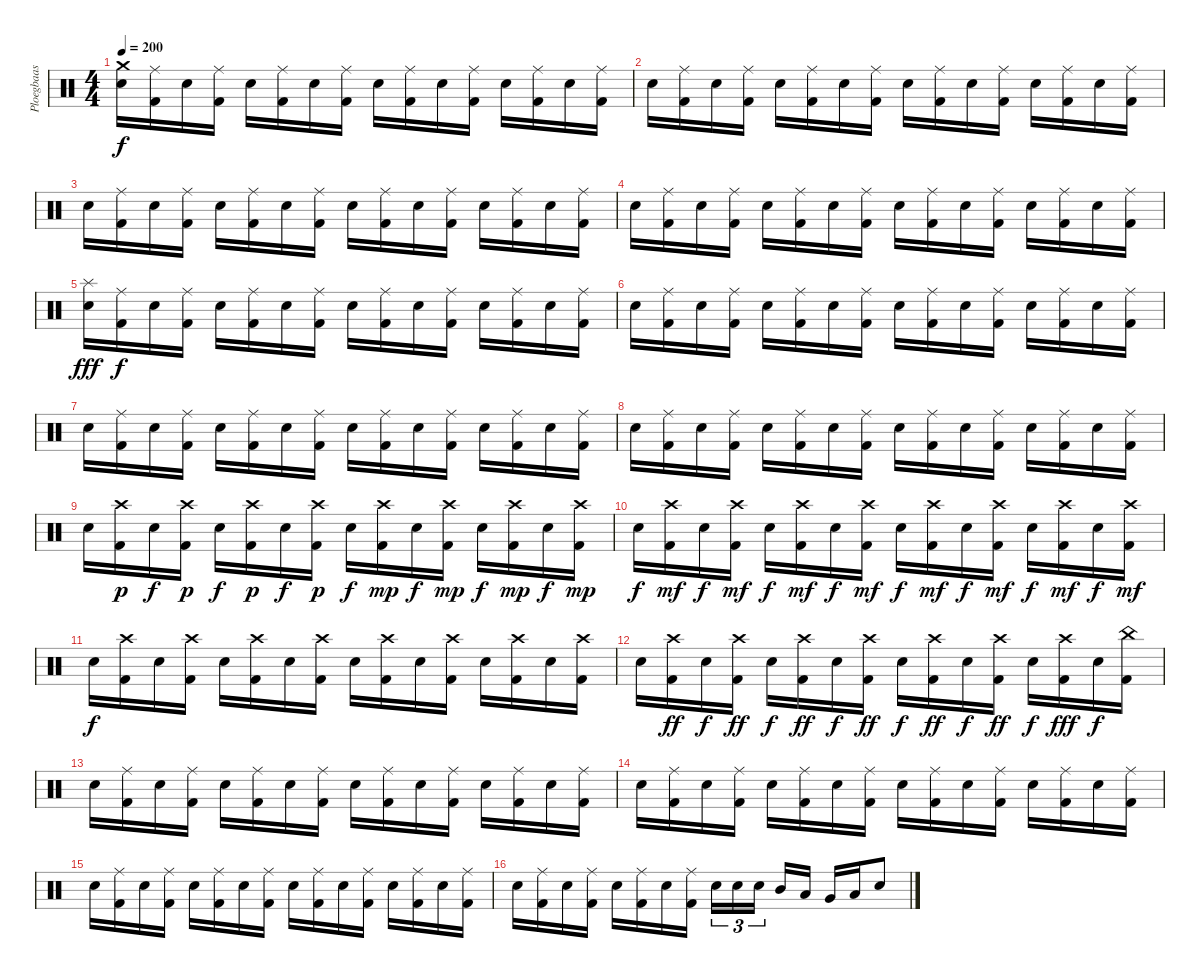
\track ("Ploegbaas" "Ploegbaas") {instrument percussion}
\staff {score}
\articulation defaults
\ts (4 4)
\tempo 200
\clef neutral
\ks c
("Crash medium (hit)" "Electric Snare (hit)").16{dy f} ("Ride (middle)" "Kick (hit) 2").16 "Electric Snare (hit)".16 ("Ride (middle)" "Kick (hit) 2").16 "Electric Snare (hit)".16 ("Ride (middle)" "Kick (hit) 2").16 "Electric Snare (hit)".16 ("Ride (middle)" "Kick (hit) 2").16 "Electric Snare (hit)".16 ("Ride (middle)" "Kick (hit) 2").16 "Electric Snare (hit)".16 ("Ride (middle)" "Kick (hit) 2").16 "Electric Snare (hit)".16 ("Ride (middle)" "Kick (hit) 2").16 "Electric Snare (hit)".16 ("Ride (middle)" "Kick (hit) 2").16 |
"Electric Snare (hit)".16 ("Ride (middle)" "Kick (hit) 2").16 "Electric Snare (hit)".16 ("Ride (middle)" "Kick (hit) 2").16 "Electric Snare (hit)".16 ("Ride (middle)" "Kick (hit) 2").16 "Electric Snare (hit)".16 ("Ride (middle)" "Kick (hit) 2").16 "Electric Snare (hit)".16 ("Ride (middle)" "Kick (hit) 2").16 "Electric Snare (hit)".16 ("Ride (middle)" "Kick (hit) 2").16 "Electric Snare (hit)".16 ("Ride (middle)" "Kick (hit) 2").16 "Electric Snare (hit)".16 ("Ride (middle)" "Kick (hit) 2").16 |
"Electric Snare (hit)".16 ("Ride (middle)" "Kick (hit) 2").16 "Electric Snare (hit)".16 ("Ride (middle)" "Kick (hit) 2").16 "Electric Snare (hit)".16 ("Ride (middle)" "Kick (hit) 2").16 "Electric Snare (hit)".16 ("Ride (middle)" "Kick (hit) 2").16 "Electric Snare (hit)".16 ("Ride (middle)" "Kick (hit) 2").16 "Electric Snare (hit)".16 ("Ride (middle)" "Kick (hit) 2").16 "Electric Snare (hit)".16 ("Ride (middle)" "Kick (hit) 2").16 "Electric Snare (hit)".16 ("Ride (middle)" "Kick (hit) 2").16 |
"Electric Snare (hit)".16 ("Ride (middle)" "Kick (hit) 2").16 "Electric Snare (hit)".16 ("Ride (middle)" "Kick (hit) 2").16 "Electric Snare (hit)".16 ("Ride (middle)" "Kick (hit) 2").16 "Electric Snare (hit)".16 ("Ride (middle)" "Kick (hit) 2").16 "Electric Snare (hit)".16 ("Ride (middle)" "Kick (hit) 2").16 "Electric Snare (hit)".16 ("Ride (middle)" "Kick (hit) 2").16 "Electric Snare (hit)".16 ("Ride (middle)" "Kick (hit) 2").16 "Electric Snare (hit)".16 ("Ride (middle)" "Kick (hit) 2").16 |
("Splash (hit)" "Electric Snare (hit)").16{dy fff} ("Ride (middle)" "Kick (hit) 2").16{dy f} "Electric Snare (hit)".16 ("Ride (middle)" "Kick (hit) 2").16 "Electric Snare (hit)".16 ("Ride (middle)" "Kick (hit) 2").16 "Electric Snare (hit)".16 ("Ride (middle)" "Kick (hit) 2").16 "Electric Snare (hit)".16 ("Ride (middle)" "Kick (hit) 2").16 "Electric Snare (hit)".16 ("Ride (middle)" "Kick (hit) 2").16 "Electric Snare (hit)".16 ("Ride (middle)" "Kick (hit) 2").16 "Electric Snare (hit)".16 ("Ride (middle)" "Kick (hit) 2").16 |
"Electric Snare (hit)".16 ("Ride (middle)" "Kick (hit) 2").16 "Electric Snare (hit)".16 ("Ride (middle)" "Kick (hit) 2").16 "Electric Snare (hit)".16 ("Ride (middle)" "Kick (hit) 2").16 "Electric Snare (hit)".16 ("Ride (middle)" "Kick (hit) 2").16 "Electric Snare (hit)".16 ("Ride (middle)" "Kick (hit) 2").16 "Electric Snare (hit)".16 ("Ride (middle)" "Kick (hit) 2").16 "Electric Snare (hit)".16 ("Ride (middle)" "Kick (hit) 2").16 "Electric Snare (hit)".16 ("Ride (middle)" "Kick (hit) 2").16 |
"Electric Snare (hit)".16 ("Ride (middle)" "Kick (hit) 2").16 "Electric Snare (hit)".16 ("Ride (middle)" "Kick (hit) 2").16 "Electric Snare (hit)".16 ("Ride (middle)" "Kick (hit) 2").16 "Electric Snare (hit)".16 ("Ride (middle)" "Kick (hit) 2").16 "Electric Snare (hit)".16 ("Ride (middle)" "Kick (hit) 2").16 "Electric Snare (hit)".16 ("Ride (middle)" "Kick (hit) 2").16 "Electric Snare (hit)".16 ("Ride (middle)" "Kick (hit) 2").16 "Electric Snare (hit)".16 ("Ride (middle)" "Kick (hit) 2").16 |
"Electric Snare (hit)".16 ("Ride (middle)" "Kick (hit) 2").16 "Electric Snare (hit)".16 ("Ride (middle)" "Kick (hit) 2").16 "Electric Snare (hit)".16 ("Ride (middle)" "Kick (hit) 2").16 "Electric Snare (hit)".16 ("Ride (middle)" "Kick (hit) 2").16 "Electric Snare (hit)".16 ("Ride (middle)" "Kick (hit) 2").16 "Electric Snare (hit)".16 ("Ride (middle)" "Kick (hit) 2").16 "Electric Snare (hit)".16 ("Ride (middle)" "Kick (hit) 2").16 "Electric Snare (hit)".16 ("Ride (middle)" "Kick (hit) 2").16 |
"Electric Snare (hit)".16 ("Crash high (hit)" "Kick (hit) 2").16{dy p} "Electric Snare (hit)".16{dy f} ("Crash high (hit)" "Kick (hit) 2").16{dy p} "Electric Snare (hit)".16{dy f} ("Crash high (hit)" "Kick (hit) 2").16{dy p} "Electric Snare (hit)".16{dy f} ("Crash high (hit)" "Kick (hit) 2").16{dy p} "Electric Snare (hit)".16{dy f} ("Crash high (hit)" "Kick (hit) 2").16{dy mp} "Electric Snare (hit)".16{dy f} ("Crash high (hit)" "Kick (hit) 2").16{dy mp} "Electric Snare (hit)".16{dy f} ("Crash high (hit)" "Kick (hit) 2").16{dy mp} "Electric Snare (hit)".16{dy f} ("Crash high (hit)" "Kick (hit) 2").16{dy mp} |
"Electric Snare (hit)".16{dy f} ("Crash high (hit)" "Kick (hit) 2").16{dy mf} "Electric Snare (hit)".16{dy f} ("Crash high (hit)" "Kick (hit) 2").16{dy mf} "Electric Snare (hit)".16{dy f} ("Crash high (hit)" "Kick (hit) 2").16{dy mf} "Electric Snare (hit)".16{dy f} ("Crash high (hit)" "Kick (hit) 2").16{dy mf} "Electric Snare (hit)".16{dy f} ("Crash high (hit)" "Kick (hit) 2").16{dy mf} "Electric Snare (hit)".16{dy f} ("Crash high (hit)" "Kick (hit) 2").16{dy mf} "Electric Snare (hit)".16{dy f} ("Crash high (hit)" "Kick (hit) 2").16{dy mf} "Electric Snare (hit)".16{dy f} ("Crash high (hit)" "Kick (hit) 2").16{dy mf} |
"Electric Snare (hit)".16{dy f} ("Crash high (hit)" "Kick (hit) 2").16 "Electric Snare (hit)".16 ("Crash high (hit)" "Kick (hit) 2").16 "Electric Snare (hit)".16 ("Crash high (hit)" "Kick (hit) 2").16 "Electric Snare (hit)".16 ("Crash high (hit)" "Kick (hit) 2").16 "Electric Snare (hit)".16 ("Crash high (hit)" "Kick (hit) 2").16 "Electric Snare (hit)".16 ("Crash high (hit)" "Kick (hit) 2").16 "Electric Snare (hit)".16 ("Crash high (hit)" "Kick (hit) 2").16 "Electric Snare (hit)".16 ("Crash high (hit)" "Kick (hit) 2").16 |
"Electric Snare (hit)".16 ("Crash high (hit)" "Kick (hit) 2").16{dy ff} "Electric Snare (hit)".16{dy f} ("Crash high (hit)" "Kick (hit) 2").16{dy ff} "Electric Snare (hit)".16{dy f} ("Crash high (hit)" "Kick (hit) 2").16{dy ff} "Electric Snare (hit)".16{dy f} ("Crash high (hit)" "Kick (hit) 2").16{dy ff} "Electric Snare (hit)".16{dy f} ("Crash high (hit)" "Kick (hit) 2").16{dy ff} "Electric Snare (hit)".16{dy f} ("Crash high (hit)" "Kick (hit) 2").16{dy ff} "Electric Snare (hit)".16{dy f} ("Crash high (hit)" "Kick (hit) 2").16{dy fff} "Electric Snare (hit)".16{dy f} ("China (hit)" "Kick (hit) 2").16 |
"Electric Snare (hit)".16 ("Ride (middle)" "Kick (hit) 2").16 "Electric Snare (hit)".16 ("Ride (middle)" "Kick (hit) 2").16 "Electric Snare (hit)".16 ("Ride (middle)" "Kick (hit) 2").16 "Electric Snare (hit)".16 ("Ride (middle)" "Kick (hit) 2").16 "Electric Snare (hit)".16 ("Ride (middle)" "Kick (hit) 2").16 "Electric Snare (hit)".16 ("Ride (middle)" "Kick (hit) 2").16 "Electric Snare (hit)".16 ("Ride (middle)" "Kick (hit) 2").16 "Electric Snare (hit)".16 ("Ride (middle)" "Kick (hit) 2").16 |
"Electric Snare (hit)".16 ("Ride (middle)" "Kick (hit) 2").16 "Electric Snare (hit)".16 ("Ride (middle)" "Kick (hit) 2").16 "Electric Snare (hit)".16 ("Ride (middle)" "Kick (hit) 2").16 "Electric Snare (hit)".16 ("Ride (middle)" "Kick (hit) 2").16 "Electric Snare (hit)".16 ("Ride (middle)" "Kick (hit) 2").16 "Electric Snare (hit)".16 ("Ride (middle)" "Kick (hit) 2").16 "Electric Snare (hit)".16 ("Ride (middle)" "Kick (hit) 2").16 "Electric Snare (hit)".16 ("Ride (middle)" "Kick (hit) 2").16 |
"Electric Snare (hit)".16 ("Ride (middle)" "Kick (hit) 2").16 "Electric Snare (hit)".16 ("Ride (middle)" "Kick (hit) 2").16 "Electric Snare (hit)".16 ("Ride (middle)" "Kick (hit) 2").16 "Electric Snare (hit)".16 ("Ride (middle)" "Kick (hit) 2").16 "Electric Snare (hit)".16 ("Ride (middle)" "Kick (hit) 2").16 "Electric Snare (hit)".16 ("Ride (middle)" "Kick (hit) 2").16 "Electric Snare (hit)".16 ("Ride (middle)" "Kick (hit) 2").16 "Electric Snare (hit)".16 ("Ride (middle)" "Kick (hit) 2").16 |
"Electric Snare (hit)".16 ("Ride (middle)" "Kick (hit) 2").16 "Electric Snare (hit)".16 ("Ride (middle)" "Kick (hit) 2").16 "Electric Snare (hit)".16 ("Ride (middle)" "Kick (hit) 2").16 "Electric Snare (hit)".16 ("Ride (middle)" "Kick (hit) 2").16 "Electric Snare (hit)".16{tu (3 2)} "Electric Snare (hit)".16{tu (3 2)} "Electric Snare (hit)".16{tu (3 2)} "Mid Tom (hit)".16 "Low Tom (hit)".16 "Very Low Tom (hit)".16 "Low Floor Tom (hit)".16 "Electric Snare (hit)".8
